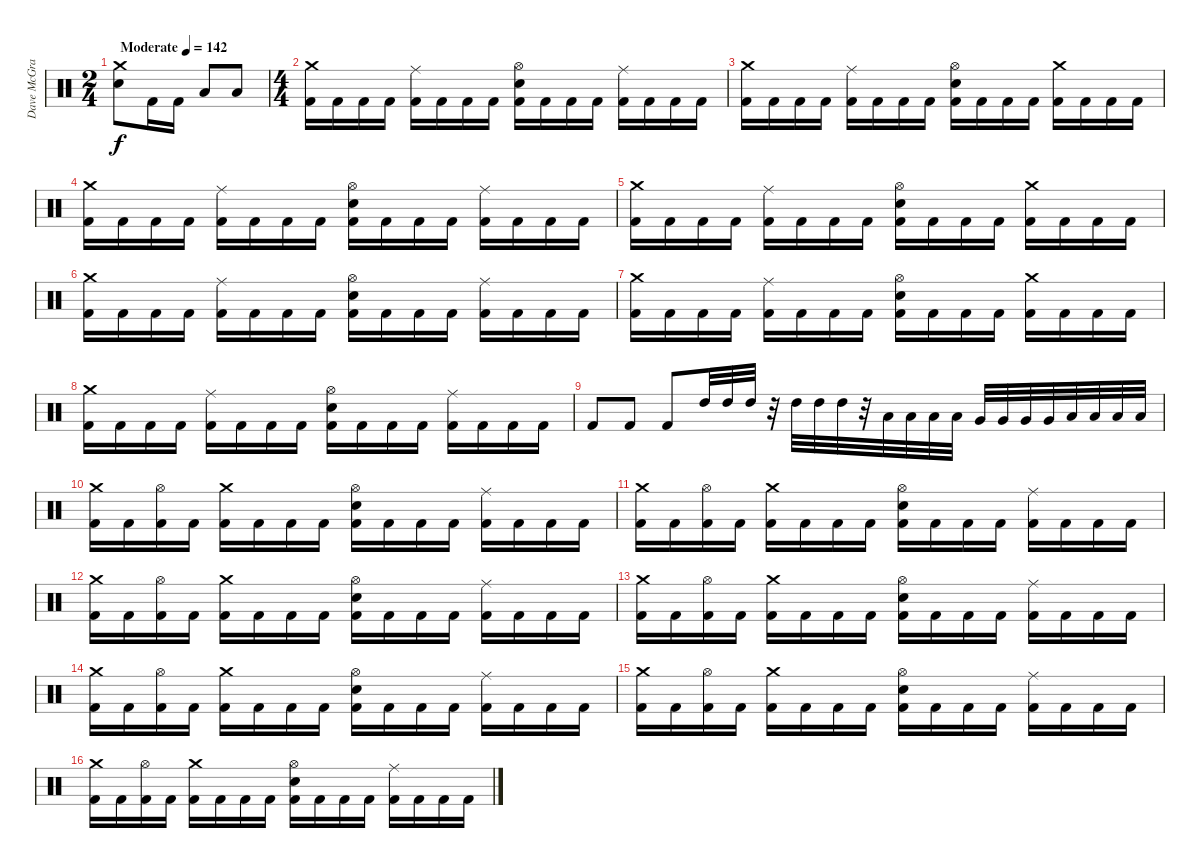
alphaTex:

\track ("Dave McGraw" "Dave McGra") {instrument percussion}
\staff {score}
\articulation defaults
\ts (2 4)
\tempo (142 "Moderate")
\clef neutral
\ks c
("Crash medium (hit)" "Electric Snare (hit)").8{dy f} "Kick (hit) 2".16 "Kick (hit) 2".16 "Low Tom (hit)".8 "Low Floor Tom (hit)".8 |
\ts (4 4)
("Crash medium (hit)" "Kick (hit) 2").16 "Kick (hit) 2".16 "Kick (hit) 2".16 "Kick (hit) 2".16 ("Ride (middle)" "Kick (hit) 2").16 "Kick (hit) 2".16 "Kick (hit) 2".16 "Kick (hit) 2".16 ("Hi-Hat (open)" "Electric Snare (hit)" "Kick (hit) 2").16 "Kick (hit) 2".16 "Kick (hit) 2".16 "Kick (hit) 2".16 ("Ride (middle)" "Kick (hit) 2").16 "Kick (hit) 2".16 "Kick (hit) 2".16 "Kick (hit) 2".16 |
("Crash medium (hit)" "Kick (hit) 2").16 "Kick (hit) 2".16 "Kick (hit) 2".16 "Kick (hit) 2".16 ("Ride (middle)" "Kick (hit) 2").16 "Kick (hit) 2".16 "Kick (hit) 2".16 "Kick (hit) 2".16 ("Hi-Hat (open)" "Electric Snare (hit)" "Kick (hit) 2").16 "Kick (hit) 2".16 "Kick (hit) 2".16 "Kick (hit) 2".16 ("Crash medium (hit)" "Kick (hit) 2").16 "Kick (hit) 2".16 "Kick (hit) 2".16 "Kick (hit) 2".16 |
("Crash medium (hit)" "Kick (hit) 2").16 "Kick (hit) 2".16 "Kick (hit) 2".16 "Kick (hit) 2".16 ("Ride (middle)" "Kick (hit) 2").16 "Kick (hit) 2".16 "Kick (hit) 2".16 "Kick (hit) 2".16 ("Hi-Hat (open)" "Electric Snare (hit)" "Kick (hit) 2").16 "Kick (hit) 2".16 "Kick (hit) 2".16 "Kick (hit) 2".16 ("Ride (middle)" "Kick (hit) 2").16 "Kick (hit) 2".16 "Kick (hit) 2".16 "Kick (hit) 2".16 |
("Crash medium (hit)" "Kick (hit) 2").16 "Kick (hit) 2".16 "Kick (hit) 2".16 "Kick (hit) 2".16 ("Ride (middle)" "Kick (hit) 2").16 "Kick (hit) 2".16 "Kick (hit) 2".16 "Kick (hit) 2".16 ("Hi-Hat (open)" "Electric Snare (hit)" "Kick (hit) 2").16 "Kick (hit) 2".16 "Kick (hit) 2".16 "Kick (hit) 2".16 ("Crash medium (hit)" "Kick (hit) 2").16 "Kick (hit) 2".16 "Kick (hit) 2".16 "Kick (hit) 2".16 |
("Crash medium (hit)" "Kick (hit) 2").16 "Kick (hit) 2".16 "Kick (hit) 2".16 "Kick (hit) 2".16 ("Ride (middle)" "Kick (hit) 2").16 "Kick (hit) 2".16 "Kick (hit) 2".16 "Kick (hit) 2".16 ("Hi-Hat (open)" "Electric Snare (hit)" "Kick (hit) 2").16 "Kick (hit) 2".16 "Kick (hit) 2".16 "Kick (hit) 2".16 ("Ride (middle)" "Kick (hit) 2").16 "Kick (hit) 2".16 "Kick (hit) 2".16 "Kick (hit) 2".16 |
("Crash medium (hit)" "Kick (hit) 2").16 "Kick (hit) 2".16 "Kick (hit) 2".16 "Kick (hit) 2".16 ("Ride (middle)" "Kick (hit) 2").16 "Kick (hit) 2".16 "Kick (hit) 2".16 "Kick (hit) 2".16 ("Hi-Hat (open)" "Electric Snare (hit)" "Kick (hit) 2").16 "Kick (hit) 2".16 "Kick (hit) 2".16 "Kick (hit) 2".16 ("Crash medium (hit)" "Kick (hit) 2").16 "Kick (hit) 2".16 "Kick (hit) 2".16 "Kick (hit) 2".16 |
("Crash medium (hit)" "Kick (hit) 2").16 "Kick (hit) 2".16 "Kick (hit) 2".16 "Kick (hit) 2".16 ("Ride (middle)" "Kick (hit) 2").16 "Kick (hit) 2".16 "Kick (hit) 2".16 "Kick (hit) 2".16 ("Hi-Hat (open)" "Electric Snare (hit)" "Kick (hit) 2").16 "Kick (hit) 2".16 "Kick (hit) 2".16 "Kick (hit) 2".16 ("Ride (middle)" "Kick (hit) 2").16 "Kick (hit) 2".16 "Kick (hit) 2".16 "Kick (hit) 2".16 |
"Kick (hit) 2".8 "Kick (hit) 2".8 "Kick (hit) 2".8 "High Tom (hit)".32 "High Tom (hit)".32 "High Tom (hit)".32 r.32 "High Tom (hit)".32 "High Tom (hit)".32 "High Tom (hit)".32 r.32 "Low Tom (hit)".32 "Low Tom (hit)".32 "Low Tom (hit)".32 "Low Tom (hit)".32 "Very Low Tom (hit)".32 "Very Low Tom (hit)".32 "Very Low Tom (hit)".32 "Very Low Tom (hit)".32 "Low Floor Tom (hit)".32 "Low Floor Tom (hit)".32 "Low Floor Tom (hit)".32 "Low Floor Tom (hit)".32 |
("Crash medium (hit)" "Kick (hit) 2").16 "Kick (hit) 2".16 ("Hi-Hat (open)" "Kick (hit) 2").16 "Kick (hit) 2".16 ("Crash medium (hit)" "Kick (hit) 2").16 "Kick (hit) 2".16 "Kick (hit) 2".16 "Kick (hit) 2".16 ("Hi-Hat (open)" "Electric Snare (hit)" "Kick (hit) 2").16 "Kick (hit) 2".16 "Kick (hit) 2".16 "Kick (hit) 2".16 ("Ride (middle)" "Kick (hit) 2").16 "Kick (hit) 2".16 "Kick (hit) 2".16 "Kick (hit) 2".16 |
("Crash medium (hit)" "Kick (hit) 2").16 "Kick (hit) 2".16 ("Hi-Hat (open)" "Kick (hit) 2").16 "Kick (hit) 2".16 ("Crash medium (hit)" "Kick (hit) 2").16 "Kick (hit) 2".16 "Kick (hit) 2".16 "Kick (hit) 2".16 ("Hi-Hat (open)" "Electric Snare (hit)" "Kick (hit) 2").16 "Kick (hit) 2".16 "Kick (hit) 2".16 "Kick (hit) 2".16 ("Ride (middle)" "Kick (hit) 2").16 "Kick (hit) 2".16 "Kick (hit) 2".16 "Kick (hit) 2".16 |
("Crash medium (hit)" "Kick (hit) 2").16 "Kick (hit) 2".16 ("Hi-Hat (open)" "Kick (hit) 2").16 "Kick (hit) 2".16 ("Crash medium (hit)" "Kick (hit) 2").16 "Kick (hit) 2".16 "Kick (hit) 2".16 "Kick (hit) 2".16 ("Hi-Hat (open)" "Electric Snare (hit)" "Kick (hit) 2").16 "Kick (hit) 2".16 "Kick (hit) 2".16 "Kick (hit) 2".16 ("Ride (middle)" "Kick (hit) 2").16 "Kick (hit) 2".16 "Kick (hit) 2".16 "Kick (hit) 2".16 |
("Crash medium (hit)" "Kick (hit) 2").16 "Kick (hit) 2".16 ("Hi-Hat (open)" "Kick (hit) 2").16 "Kick (hit) 2".16 ("Crash medium (hit)" "Kick (hit) 2").16 "Kick (hit) 2".16 "Kick (hit) 2".16 "Kick (hit) 2".16 ("Hi-Hat (open)" "Electric Snare (hit)" "Kick (hit) 2").16 "Kick (hit) 2".16 "Kick (hit) 2".16 "Kick (hit) 2".16 ("Ride (middle)" "Kick (hit) 2").16 "Kick (hit) 2".16 "Kick (hit) 2".16 "Kick (hit) 2".16 |
("Crash medium (hit)" "Kick (hit) 2").16 "Kick (hit) 2".16 ("Hi-Hat (open)" "Kick (hit) 2").16 "Kick (hit) 2".16 ("Crash medium (hit)" "Kick (hit) 2").16 "Kick (hit) 2".16 "Kick (hit) 2".16 "Kick (hit) 2".16 ("Hi-Hat (open)" "Electric Snare (hit)" "Kick (hit) 2").16 "Kick (hit) 2".16 "Kick (hit) 2".16 "Kick (hit) 2".16 ("Ride (middle)" "Kick (hit) 2").16 "Kick (hit) 2".16 "Kick (hit) 2".16 "Kick (hit) 2".16 |
("Crash medium (hit)" "Kick (hit) 2").16 "Kick (hit) 2".16 ("Hi-Hat (open)" "Kick (hit) 2").16 "Kick (hit) 2".16 ("Crash medium (hit)" "Kick (hit) 2").16 "Kick (hit) 2".16 "Kick (hit) 2".16 "Kick (hit) 2".16 ("Hi-Hat (open)" "Electric Snare (hit)" "Kick (hit) 2").16 "Kick (hit) 2".16 "Kick (hit) 2".16 "Kick (hit) 2".16 ("Ride (middle)" "Kick (hit) 2").16 "Kick (hit) 2".16 "Kick (hit) 2".16 "Kick (hit) 2".16 |
("Crash medium (hit)" "Kick (hit) 2").16 "Kick (hit) 2".16 ("Hi-Hat (open)" "Kick (hit) 2").16 "Kick (hit) 2".16 ("Crash medium (hit)" "Kick (hit) 2").16 "Kick (hit) 2".16 "Kick (hit) 2".16 "Kick (hit) 2".16 ("Hi-Hat (open)" "Electric Snare (hit)" "Kick (hit) 2").16 "Kick (hit) 2".16 "Kick (hit) 2".16 "Kick (hit) 2".16 ("Ride (middle)" "Kick (hit) 2").16 "Kick (hit) 2".16 "Kick (hit) 2".16 "Kick (hit) 2".16
